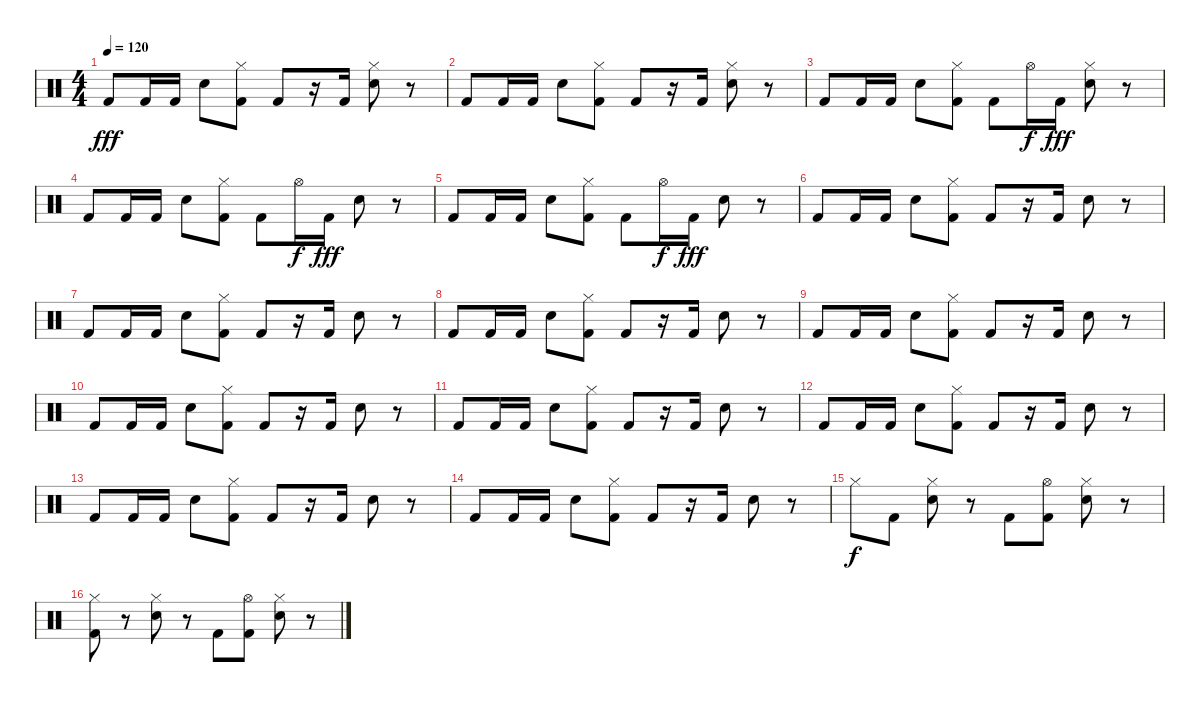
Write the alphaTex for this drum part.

\track "" {instrument percussion}
\staff {score}
\articulation defaults
\ts (4 4)
\tempo 120
\clef neutral
\ks c "Kick (hit) 2".8{dy fff} "Kick (hit) 2".16 "Kick (hit) 2".16 "Electric Snare (hit)".8
("Kick (hit) 2" "Hi-Hat (closed)").8 "Kick (hit) 2".8 r.16 "Kick (hit) 2".16 ("Electric Snare (hit)" "Hi-Hat (closed)").8 r.8 |
"Kick (hit) 2".8 "Kick (hit) 2".16 "Kick (hit) 2".16 "Electric Snare (hit)".8 ("Kick (hit) 2" "Hi-Hat (closed)").8 "Kick (hit) 2".8 r.16 "Kick (hit) 2".16 ("Electric Snare (hit)" "Hi-Hat (closed)").8 r.8 |
"Kick (hit) 2".8 "Kick (hit) 2".16 "Kick (hit) 2".16 "Electric Snare (hit)".8 ("Kick (hit) 2" "Hi-Hat (closed)").8 "Kick (hit) 2".8 "Hi-Hat (open)".16{dy f} "Kick (hit) 2".16{dy fff} ("Electric Snare (hit)" "Hi-Hat (closed)").8 r.8 |
"Kick (hit) 2".8 "Kick (hit) 2".16 "Kick (hit) 2".16 "Electric Snare (hit)".8 ("Kick (hit) 2" "Hi-Hat (closed)").8 "Kick (hit) 2".8 "Hi-Hat (open)".16{dy f} "Kick (hit) 2".16{dy fff} "Electric Snare (hit)".8 r.8 |
"Kick (hit) 2".8 "Kick (hit) 2".16 "Kick (hit) 2".16 "Electric Snare (hit)".8 ("Kick (hit) 2" "Hi-Hat (closed)").8 "Kick (hit) 2".8 "Hi-Hat (open)".16{dy f} "Kick (hit) 2".16{dy fff} "Electric Snare (hit)".8 r.8 |
"Kick (hit) 2".8 "Kick (hit) 2".16 "Kick (hit) 2".16 "Electric Snare (hit)".8 ("Kick (hit) 2" "Hi-Hat (closed)").8 "Kick (hit) 2".8 r.16 "Kick (hit) 2".16 "Electric Snare (hit)".8 r.8 |
"Kick (hit) 2".8 "Kick (hit) 2".16 "Kick (hit) 2".16 "Electric Snare (hit)".8 ("Kick (hit) 2" "Hi-Hat (closed)").8 "Kick (hit) 2".8 r.16 "Kick (hit) 2".16 "Electric Snare (hit)".8 r.8 |
"Kick (hit) 2".8 "Kick (hit) 2".16 "Kick (hit) 2".16 "Electric Snare (hit)".8 ("Kick (hit) 2" "Hi-Hat (closed)").8 "Kick (hit) 2".8 r.16 "Kick (hit) 2".16 "Electric Snare (hit)".8 r.8 |
"Kick (hit) 2".8 "Kick (hit) 2".16 "Kick (hit) 2".16 "Electric Snare (hit)".8 ("Kick (hit) 2" "Hi-Hat (closed)").8 "Kick (hit) 2".8 r.16 "Kick (hit) 2".16 "Electric Snare (hit)".8 r.8 |
"Kick (hit) 2".8 "Kick (hit) 2".16 "Kick (hit) 2".16 "Electric Snare (hit)".8 ("Kick (hit) 2" "Hi-Hat (closed)").8 "Kick (hit) 2".8 r.16 "Kick (hit) 2".16 "Electric Snare (hit)".8 r.8 |
"Kick (hit) 2".8 "Kick (hit) 2".16 "Kick (hit) 2".16 "Electric Snare (hit)".8 ("Kick (hit) 2" "Hi-Hat (closed)").8 "Kick (hit) 2".8 r.16 "Kick (hit) 2".16 "Electric Snare (hit)".8 r.8 |
"Kick (hit) 2".8 "Kick (hit) 2".16 "Kick (hit) 2".16 "Electric Snare (hit)".8 ("Kick (hit) 2" "Hi-Hat (closed)").8 "Kick (hit) 2".8 r.16 "Kick (hit) 2".16 "Electric Snare (hit)".8 r.8 |
"Kick (hit) 2".8 "Kick (hit) 2".16 "Kick (hit) 2".16 "Electric Snare (hit)".8 ("Kick (hit) 2" "Hi-Hat (closed)").8 "Kick (hit) 2".8 r.16 "Kick (hit) 2".16 "Electric Snare (hit)".8 r.8 |
"Kick (hit) 2".8 "Kick (hit) 2".16 "Kick (hit) 2".16 "Electric Snare (hit)".8 ("Kick (hit) 2" "Hi-Hat (closed)").8 "Kick (hit) 2".8 r.16 "Kick (hit) 2".16 "Electric Snare (hit)".8 r.8 |
"Hi-Hat (closed)".8{dy f volume 9} "Kick (hit) 2".8 ("Hi-Hat (closed)" "Snare (hit) 2").8 r.8 "Kick (hit) 2".8 ("Hi-Hat (open)" "Kick (hit) 2").8 ("Hi-Hat (closed)" "Snare (hit) 2").8 r.8 |
("Hi-Hat (closed)" "Kick (hit) 2").8 r.8 ("Hi-Hat (closed)" "Snare (hit) 2").8 r.8 "Kick (hit) 2".8 ("Hi-Hat (open)" "Kick (hit) 2").8 ("Hi-Hat (closed)" "Snare (hit) 2").8 r.8
